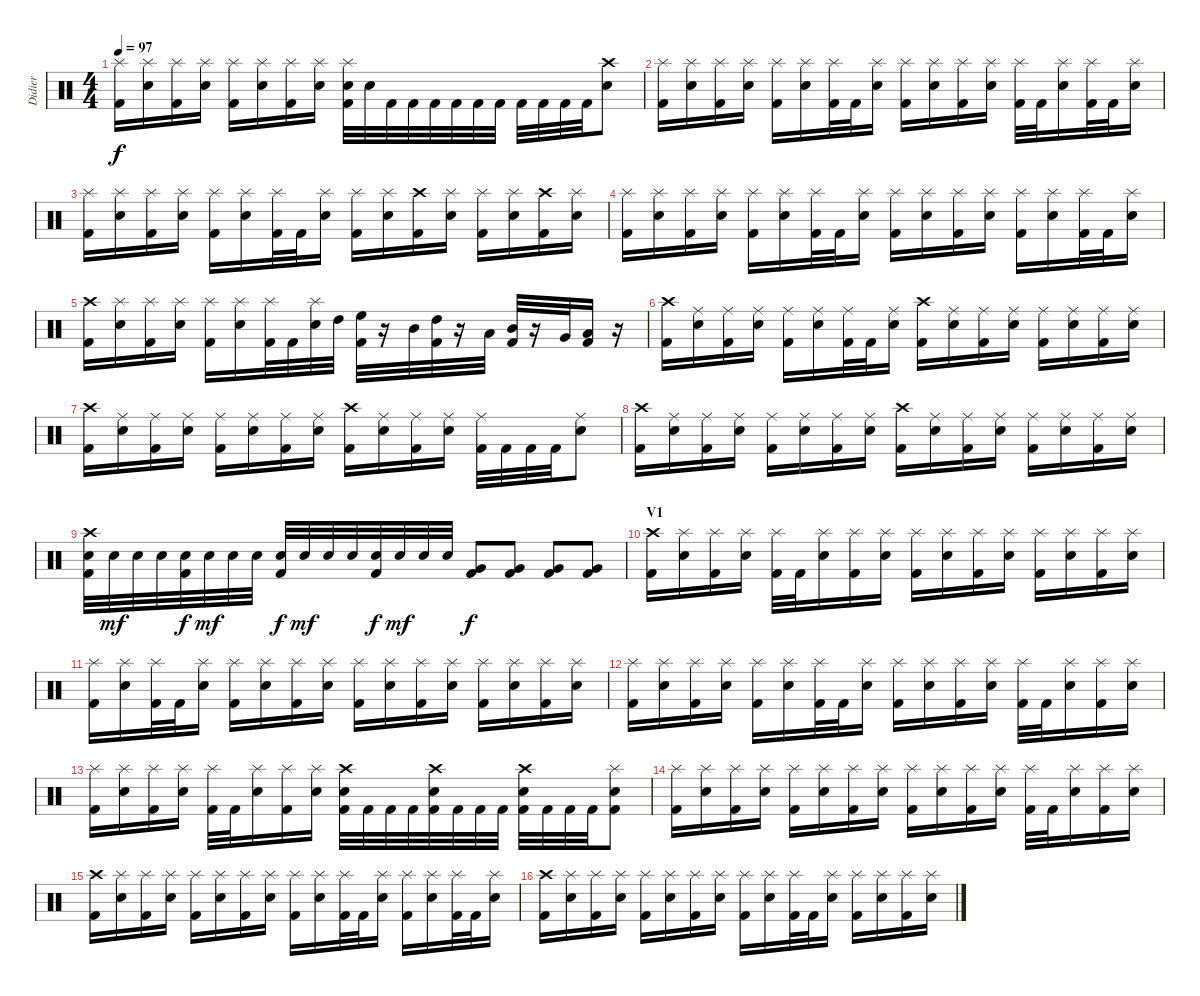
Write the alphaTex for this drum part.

\track ("Didier" "Didier") {instrument percussion}
\staff {score}
\articulation defaults
\ts (4 4)
\tempo 97
\clef neutral
\ks c
("Splash (hit)" "Kick (hit) 2").16{dy f} ("Splash (hit)" "Snare (hit) 2").16 ("Splash (hit)" "Kick (hit) 2").16 ("Splash (hit)" "Snare (hit) 2").16 ("Splash (hit)" "Kick (hit) 2").16 ("Splash (hit)" "Snare (hit) 2").16 ("Splash (hit)" "Kick (hit) 2").16 ("Splash (hit)" "Snare (hit) 2").16 ("Splash (hit)" "Snare (hit) 2" "Kick (hit) 2").32 "Snare (hit) 2".32 "Kick (hit) 2".32 "Kick (hit) 2".32 "Kick (hit) 2".32 "Kick (hit) 2".32 "Kick (hit) 2".32 "Kick (hit) 2".32 "Kick (hit) 2".32 "Kick (hit) 2".32 "Kick (hit) 2".32 "Kick (hit) 2".32 ("Crash high (hit)" "Snare (hit) 2").8 |
("Splash (hit)" "Kick (hit) 2").16 ("Splash (hit)" "Snare (hit) 2").16 ("Splash (hit)" "Kick (hit) 2").16 ("Splash (hit)" "Snare (hit) 2").16 ("Splash (hit)" "Kick (hit) 2").16 ("Splash (hit)" "Snare (hit) 2").16 ("Splash (hit)" "Kick (hit) 2").32 "Kick (hit) 2".32 ("Splash (hit)" "Snare (hit) 2").16 ("Splash (hit)" "Kick (hit) 2").16 ("Splash (hit)" "Snare (hit) 2").16 ("Splash (hit)" "Kick (hit) 2").16 ("Splash (hit)" "Snare (hit) 2").16 ("Splash (hit)" "Kick (hit) 2").32 "Kick (hit) 2".32 ("Splash (hit)" "Snare (hit) 2").16 ("Splash (hit)" "Kick (hit) 2").32 "Kick (hit) 2".32 ("Splash (hit)" "Snare (hit) 2").16 |
("Splash (hit)" "Kick (hit) 2").16 ("Splash (hit)" "Snare (hit) 2").16 ("Splash (hit)" "Kick (hit) 2").16 ("Splash (hit)" "Snare (hit) 2").16 ("Splash (hit)" "Kick (hit) 2").16 ("Splash (hit)" "Snare (hit) 2").16 ("Splash (hit)" "Kick (hit) 2").32 "Kick (hit) 2".32 ("Splash (hit)" "Snare (hit) 2").16 ("Splash (hit)" "Kick (hit) 2").16 ("Splash (hit)" "Snare (hit) 2").16 ("Crash high (hit)" "Kick (hit) 2").16 ("Splash (hit)" "Snare (hit) 2").16 ("Splash (hit)" "Kick (hit) 2").16 ("Splash (hit)" "Snare (hit) 2").16 ("Crash high (hit)" "Kick (hit) 2").16 ("Splash (hit)" "Snare (hit) 2").16 |
("Splash (hit)" "Kick (hit) 2").16 ("Splash (hit)" "Snare (hit) 2").16 ("Splash (hit)" "Kick (hit) 2").16 ("Splash (hit)" "Snare (hit) 2").16 ("Splash (hit)" "Kick (hit) 2").16 ("Splash (hit)" "Snare (hit) 2").16 ("Splash (hit)" "Kick (hit) 2").32 "Kick (hit) 2".32 ("Splash (hit)" "Snare (hit) 2").16 ("Splash (hit)" "Kick (hit) 2").16 ("Splash (hit)" "Snare (hit) 2").16 ("Splash (hit)" "Kick (hit) 2").16 ("Splash (hit)" "Snare (hit) 2").16 ("Splash (hit)" "Kick (hit) 2").16 ("Splash (hit)" "Snare (hit) 2").16 ("Splash (hit)" "Kick (hit) 2").32 "Kick (hit) 2".32 ("Splash (hit)" "Snare (hit) 2").16 |
("Crash high (hit)" "Kick (hit) 2").16 ("Splash (hit)" "Snare (hit) 2").16 ("Splash (hit)" "Kick (hit) 2").16 ("Splash (hit)" "Snare (hit) 2").16 ("Splash (hit)" "Kick (hit) 2").16 ("Splash (hit)" "Snare (hit) 2").16 ("Splash (hit)" "Kick (hit) 2").32 "Kick (hit) 2".32 ("Splash (hit)" "Snare (hit) 2").32 "High Tom (hit)".32 ("High Floor Tom (hit)" "Kick (hit) 2").32 r.16 "Mid Tom (hit)".32 ("High Tom (hit)" "Kick (hit) 2").32 r.16 "Low Tom (hit)".32 ("Mid Tom (hit)" "Kick (hit) 2").32 r.16 "Very Low Tom (hit)".32 ("Low Tom (hit)" "Kick (hit) 2").16 r.16 |
("Crash high (hit)" "Kick (hit) 2").16 ("Ride (middle)" "Snare (hit) 2").16 ("Ride (middle)" "Kick (hit) 2").16 ("Ride (middle)" "Snare (hit) 2").16 ("Ride (middle)" "Kick (hit) 2").16 ("Ride (middle)" "Snare (hit) 2").16 ("Ride (middle)" "Kick (hit) 2").32 "Kick (hit) 2".32 ("Ride (middle)" "Snare (hit) 2").16 ("Crash high (hit)" "Kick (hit) 2").16 ("Ride (middle)" "Snare (hit) 2").16 ("Ride (middle)" "Kick (hit) 2").16 ("Ride (middle)" "Snare (hit) 2").16 ("Ride (middle)" "Kick (hit) 2").16 ("Ride (middle)" "Snare (hit) 2").16 ("Ride (middle)" "Kick (hit) 2").16 ("Ride (middle)" "Snare (hit) 2").16 |
("Crash high (hit)" "Kick (hit) 2").16 ("Ride (middle)" "Snare (hit) 2").16 ("Ride (middle)" "Kick (hit) 2").16 ("Ride (middle)" "Snare (hit) 2").16 ("Ride (middle)" "Kick (hit) 2").16 ("Ride (middle)" "Snare (hit) 2").16 ("Ride (middle)" "Kick (hit) 2").16 ("Ride (middle)" "Snare (hit) 2").16 ("Crash high (hit)" "Kick (hit) 2").16 ("Ride (middle)" "Snare (hit) 2").16 ("Ride (middle)" "Kick (hit) 2").16 ("Ride (middle)" "Snare (hit) 2").16 ("Ride (middle)" "Kick (hit) 2").32 "Kick (hit) 2".32 "Kick (hit) 2".32 "Kick (hit) 2".32 ("Ride (middle)" "Snare (hit) 2").8 |
("Crash high (hit)" "Kick (hit) 2").16 ("Ride (middle)" "Snare (hit) 2").16 ("Ride (middle)" "Kick (hit) 2").16 ("Ride (middle)" "Snare (hit) 2").16 ("Ride (middle)" "Kick (hit) 2").16 ("Ride (middle)" "Snare (hit) 2").16 ("Ride (middle)" "Kick (hit) 2").16 ("Ride (middle)" "Snare (hit) 2").16 ("Crash high (hit)" "Kick (hit) 2").16 ("Ride (middle)" "Snare (hit) 2").16 ("Ride (middle)" "Kick (hit) 2").16 ("Ride (middle)" "Snare (hit) 2").16 ("Ride (middle)" "Kick (hit) 2").16 ("Ride (middle)" "Snare (hit) 2").16 ("Ride (middle)" "Kick (hit) 2").16 ("Ride (middle)" "Snare (hit) 2").16 |
("Crash high (hit)" "Snare (hit) 2" "Kick (hit) 2").32 "Snare (hit) 2".32{dy mf} "Snare (hit) 2".32 "Snare (hit) 2".32 ("Snare (hit) 2" "Kick (hit) 2").32{dy f} "Snare (hit) 2".32{dy mf} "Snare (hit) 2".32 "Snare (hit) 2".32 ("Snare (hit) 2" "Kick (hit) 2").32{dy f} "Snare (hit) 2".32{dy mf} "Snare (hit) 2".32 "Snare (hit) 2".32 ("Snare (hit) 2" "Kick (hit) 2").32{dy f} "Snare (hit) 2".32{dy mf} "Snare (hit) 2".32 "Snare (hit) 2".32 ("Very Low Tom (hit)" "Kick (hit) 2").8{dy f} ("Very Low Tom (hit)" "Kick (hit) 2").8 ("Very Low Tom (hit)" "Kick (hit) 2").8 ("Very Low Tom (hit)" "Kick (hit) 2").8 |
\section ("" "V1")
("Crash high (hit)" "Kick (hit) 2").16 ("Splash (hit)" "Snare (hit) 2").16 ("Splash (hit)" "Kick (hit) 2").16 ("Splash (hit)" "Snare (hit) 2").16 ("Splash (hit)" "Kick (hit) 2").32 "Kick (hit) 2".32 ("Splash (hit)" "Snare (hit) 2").16 ("Splash (hit)" "Kick (hit) 2").16 ("Splash (hit)" "Snare (hit) 2").16 ("Splash (hit)" "Kick (hit) 2").16 ("Splash (hit)" "Snare (hit) 2").16 ("Splash (hit)" "Kick (hit) 2").16 ("Splash (hit)" "Snare (hit) 2").16 ("Splash (hit)" "Kick (hit) 2").16 ("Splash (hit)" "Snare (hit) 2").16 ("Splash (hit)" "Kick (hit) 2").16 ("Splash (hit)" "Snare (hit) 2").16 |
("Splash (hit)" "Kick (hit) 2").16 ("Splash (hit)" "Snare (hit) 2").16 ("Splash (hit)" "Kick (hit) 2").32 "Kick (hit) 2".32 ("Splash (hit)" "Snare (hit) 2").16 ("Splash (hit)" "Kick (hit) 2").16 ("Splash (hit)" "Snare (hit) 2").16 ("Splash (hit)" "Kick (hit) 2").16 ("Splash (hit)" "Snare (hit) 2").16 ("Splash (hit)" "Kick (hit) 2").16 ("Splash (hit)" "Snare (hit) 2").16 ("Splash (hit)" "Kick (hit) 2").16 ("Splash (hit)" "Snare (hit) 2").16 ("Splash (hit)" "Kick (hit) 2").16 ("Splash (hit)" "Snare (hit) 2").16 ("Splash (hit)" "Kick (hit) 2").16 ("Splash (hit)" "Snare (hit) 2").16 |
("Splash (hit)" "Kick (hit) 2").16 ("Splash (hit)" "Snare (hit) 2").16 ("Splash (hit)" "Kick (hit) 2").16 ("Splash (hit)" "Snare (hit) 2").16 ("Splash (hit)" "Kick (hit) 2").16 ("Splash (hit)" "Snare (hit) 2").16 ("Splash (hit)" "Kick (hit) 2").32 "Kick (hit) 2".32 ("Splash (hit)" "Snare (hit) 2").16 ("Splash (hit)" "Kick (hit) 2").16 ("Splash (hit)" "Snare (hit) 2").16 ("Splash (hit)" "Kick (hit) 2").16 ("Splash (hit)" "Snare (hit) 2").16 ("Splash (hit)" "Kick (hit) 2").32 "Kick (hit) 2".32 ("Splash (hit)" "Snare (hit) 2").16 ("Splash (hit)" "Kick (hit) 2").16 ("Splash (hit)" "Snare (hit) 2").16 |
("Splash (hit)" "Kick (hit) 2").16 ("Splash (hit)" "Snare (hit) 2").16 ("Splash (hit)" "Kick (hit) 2").16 ("Splash (hit)" "Snare (hit) 2").16 ("Splash (hit)" "Kick (hit) 2").32 "Kick (hit) 2".32 ("Splash (hit)" "Snare (hit) 2").16 ("Splash (hit)" "Kick (hit) 2").16 ("Splash (hit)" "Snare (hit) 2").16 ("Crash high (hit)" "Snare (hit) 2" "Kick (hit) 2").32 "Kick (hit) 2".32 "Kick (hit) 2".32 "Kick (hit) 2".32 ("Crash high (hit)" "Snare (hit) 2" "Kick (hit) 2").32 "Kick (hit) 2".32 "Kick (hit) 2".32 "Kick (hit) 2".32 ("Crash high (hit)" "Snare (hit) 2" "Kick (hit) 2").32 "Kick (hit) 2".32 "Kick (hit) 2".32 "Kick (hit) 2".32 ("Splash (hit)" "Snare (hit) 2" "Kick (hit) 2").8 |
("Splash (hit)" "Kick (hit) 2").16 ("Splash (hit)" "Snare (hit) 2").16 ("Splash (hit)" "Kick (hit) 2").16 ("Splash (hit)" "Snare (hit) 2").16 ("Splash (hit)" "Kick (hit) 2").16 ("Splash (hit)" "Snare (hit) 2").16 ("Splash (hit)" "Kick (hit) 2").16 ("Splash (hit)" "Snare (hit) 2").16 ("Splash (hit)" "Kick (hit) 2").16 ("Splash (hit)" "Snare (hit) 2").16 ("Splash (hit)" "Kick (hit) 2").16 ("Splash (hit)" "Snare (hit) 2").16 ("Splash (hit)" "Kick (hit) 2").32 "Kick (hit) 2".32 ("Splash (hit)" "Snare (hit) 2").16 ("Splash (hit)" "Kick (hit) 2").16 ("Splash (hit)" "Snare (hit) 2").16 |
("Crash high (hit)" "Kick (hit) 2").16 ("Splash (hit)" "Snare (hit) 2").16 ("Splash (hit)" "Kick (hit) 2").16 ("Splash (hit)" "Snare (hit) 2").16 ("Splash (hit)" "Kick (hit) 2").16 ("Splash (hit)" "Snare (hit) 2").16 ("Splash (hit)" "Kick (hit) 2").16 ("Splash (hit)" "Snare (hit) 2").16 ("Splash (hit)" "Kick (hit) 2").16 ("Splash (hit)" "Snare (hit) 2").16 ("Splash (hit)" "Kick (hit) 2").32 "Kick (hit) 2".32 ("Splash (hit)" "Snare (hit) 2").16 ("Splash (hit)" "Kick (hit) 2").16 ("Splash (hit)" "Snare (hit) 2").16 ("Splash (hit)" "Kick (hit) 2").32 "Kick (hit) 2".32 ("Splash (hit)" "Snare (hit) 2").16 |
("Crash high (hit)" "Kick (hit) 2").16 ("Splash (hit)" "Snare (hit) 2").16 ("Splash (hit)" "Kick (hit) 2").16 ("Splash (hit)" "Snare (hit) 2").16 ("Splash (hit)" "Kick (hit) 2").16 ("Splash (hit)" "Snare (hit) 2").16 ("Splash (hit)" "Kick (hit) 2").16 ("Splash (hit)" "Snare (hit) 2").16 ("Splash (hit)" "Kick (hit) 2").16 ("Splash (hit)" "Snare (hit) 2").16 ("Splash (hit)" "Kick (hit) 2").32 "Kick (hit) 2".32 ("Splash (hit)" "Snare (hit) 2").16 ("Splash (hit)" "Kick (hit) 2").16 ("Splash (hit)" "Snare (hit) 2").16 ("Splash (hit)" "Kick (hit) 2").16 ("Splash (hit)" "Snare (hit) 2").16
